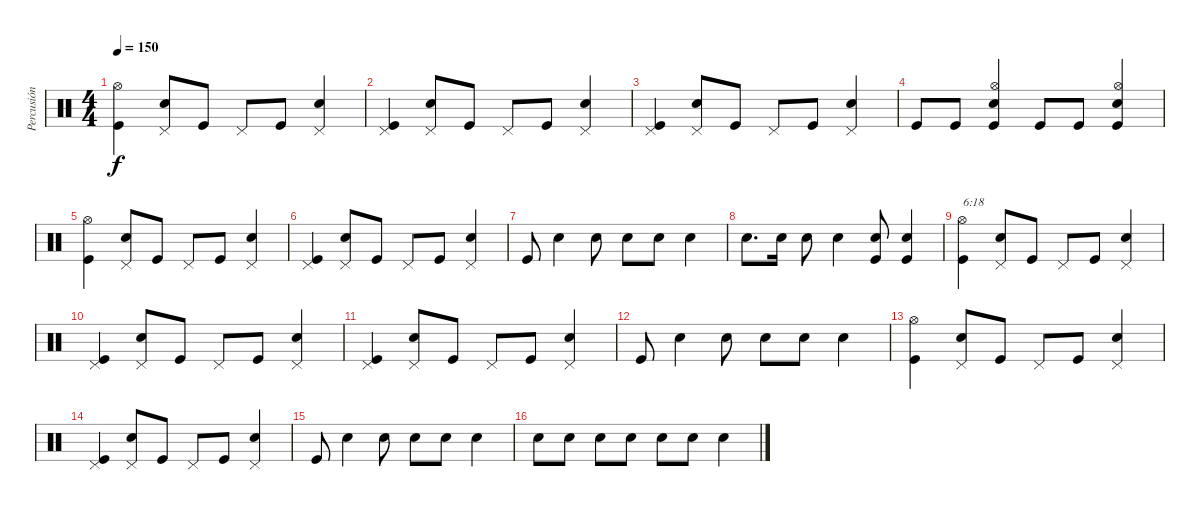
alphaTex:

\track ("Percusión" "Percusión") {instrument percussion}
\staff {score}
\articulation defaults
\ts (4 4)
\tempo 150
\clef neutral
\ks c
("Kick (hit)" "Hi-Hat (open)").4{dy f} ("Snare (hit) 2" "Pedal Hi-Hat (hit)").8 "Kick (hit)".8 "Pedal Hi-Hat (hit)".8 "Kick (hit)".8 ("Snare (hit) 2" "Pedal Hi-Hat (hit)").4 |
("Kick (hit)" "Pedal Hi-Hat (hit)").4 ("Snare (hit) 2" "Pedal Hi-Hat (hit)").8 "Kick (hit)".8 "Pedal Hi-Hat (hit)".8 "Kick (hit)".8 ("Snare (hit) 2" "Pedal Hi-Hat (hit)").4 |
("Kick (hit)" "Pedal Hi-Hat (hit)").4 ("Snare (hit) 2" "Pedal Hi-Hat (hit)").8 "Kick (hit)".8 "Pedal Hi-Hat (hit)".8 "Kick (hit)".8 ("Snare (hit) 2" "Pedal Hi-Hat (hit)").4 |
"Kick (hit)".8 "Kick (hit)".8 ("Kick (hit)" "Snare (hit) 2" "Hi-Hat (open)").4 "Kick (hit)".8 "Kick (hit)".8 ("Kick (hit)" "Snare (hit) 2" "Hi-Hat (open)").4 |
("Kick (hit)" "Hi-Hat (open)").4 ("Snare (hit) 2" "Pedal Hi-Hat (hit)").8 "Kick (hit)".8 "Pedal Hi-Hat (hit)".8 "Kick (hit)".8 ("Snare (hit) 2" "Pedal Hi-Hat (hit)").4 |
("Kick (hit)" "Pedal Hi-Hat (hit)").4 ("Snare (hit) 2" "Pedal Hi-Hat (hit)").8 "Kick (hit)".8 "Pedal Hi-Hat (hit)".8 "Kick (hit)".8 ("Snare (hit) 2" "Pedal Hi-Hat (hit)").4 |
"Kick (hit)".8 "Snare (hit) 2".4 "Snare (hit) 2".8 "Snare (hit) 2".8 "Snare (hit) 2".8 "Snare (hit) 2".4 |
"Snare (hit) 2".8{d} "Snare (hit) 2".16 "Snare (hit) 2".8 "Snare (hit) 2".4 ("Kick (hit)" "Snare (hit) 2").8 ("Kick (hit)" "Snare (hit) 2").4 |
("Kick (hit)" "Hi-Hat (open)").4{txt "6:18"} ("Snare (hit) 2" "Pedal Hi-Hat (hit)").8 "Kick (hit)".8 "Pedal Hi-Hat (hit)".8 "Kick (hit)".8 ("Snare (hit) 2" "Pedal Hi-Hat (hit)").4 |
("Kick (hit)" "Pedal Hi-Hat (hit)").4 ("Snare (hit) 2" "Pedal Hi-Hat (hit)").8 "Kick (hit)".8 "Pedal Hi-Hat (hit)".8 "Kick (hit)".8 ("Snare (hit) 2" "Pedal Hi-Hat (hit)").4 |
("Kick (hit)" "Pedal Hi-Hat (hit)").4 ("Snare (hit) 2" "Pedal Hi-Hat (hit)").8 "Kick (hit)".8 "Pedal Hi-Hat (hit)".8 "Kick (hit)".8 ("Snare (hit) 2" "Pedal Hi-Hat (hit)").4 |
"Kick (hit)".8 "Snare (hit) 2".4 "Snare (hit) 2".8 "Snare (hit) 2".8 "Snare (hit) 2".8 "Snare (hit) 2".4 |
("Kick (hit)" "Hi-Hat (open)").4 ("Snare (hit) 2" "Pedal Hi-Hat (hit)").8 "Kick (hit)".8 "Pedal Hi-Hat (hit)".8 "Kick (hit)".8 ("Snare (hit) 2" "Pedal Hi-Hat (hit)").4 |
("Kick (hit)" "Pedal Hi-Hat (hit)").4 ("Snare (hit) 2" "Pedal Hi-Hat (hit)").8 "Kick (hit)".8 "Pedal Hi-Hat (hit)".8 "Kick (hit)".8 ("Snare (hit) 2" "Pedal Hi-Hat (hit)").4 |
"Kick (hit)".8 "Snare (hit) 2".4 "Snare (hit) 2".8 "Snare (hit) 2".8 "Snare (hit) 2".8 "Snare (hit) 2".4 |
"Snare (hit) 2".8 "Snare (hit) 2".8 "Snare (hit) 2".8 "Snare (hit) 2".8 "Snare (hit) 2".8 "Snare (hit) 2".8 "Snare (hit) 2".4
